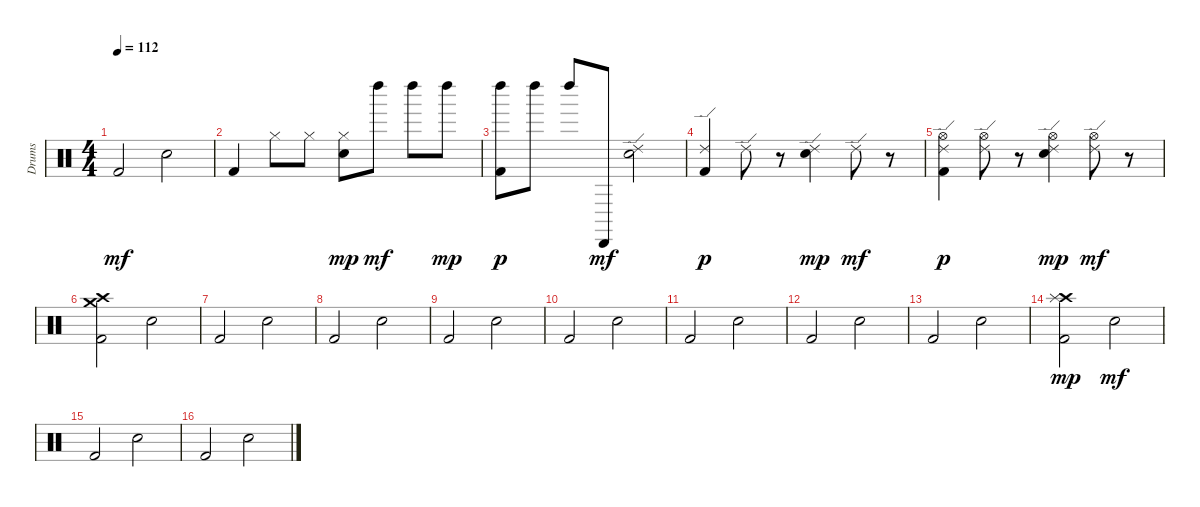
\track ("Drums" "Drums") {instrument percussion}
\staff {score}
\articulation defaults
\ts (4 4)
\tempo 112
\clef neutral
\ks c "Kick (hit) 2".2{dy mf} "Snare (hit) 2".2
|
"Kick (hit) 2".4 "Hi-Hat (closed)".8 "Hi-Hat (closed)".8 ("Snare (hit) 2" "Hi-Hat (closed)").8{dy mp} "Left Maraca (hit)".8{dy mf} "Left Maraca (hit)".8 "Left Maraca (hit)".8{dy mp} |
("Kick (hit) 2" "Left Maraca (hit)").8{dy p} "Left Maraca (hit)".8 "Left Maraca (hit)".8 "Cabasa (hit)".8{dy mf} ("Snare (hit) 2" "Ride (edge) 2").2 |
("Kick (hit) 2" "Ride (edge) 2").4{dy p} "Ride (edge) 2".8 r.8 ("Snare (hit) 2" "Ride (edge) 2").4{dy mp} "Ride (edge) 2".8{dy mf} r.8 |
("Kick (hit) 2" "Ride (edge) 2" "Hi-Hat (open)").4{dy p} ("Ride (edge) 2" "Hi-Hat (open)").8 r.8 ("Snare (hit) 2" "Ride (edge) 2" "Hi-Hat (open)").4{dy mp} ("Ride (edge) 2" "Hi-Hat (open)").8{dy mf} r.8 |
("Kick (hit) 2" "Crash medium (hit)" "Crash high (hit)").2 "Snare (hit) 2".2 |
"Kick (hit) 2".2 "Snare (hit) 2".2 |
"Kick (hit) 2".2 "Snare (hit) 2".2 |
"Kick (hit) 2".2 "Snare (hit) 2".2 |
"Kick (hit) 2".2 "Snare (hit) 2".2 |
"Kick (hit) 2".2 "Snare (hit) 2".2 |
"Kick (hit) 2".2 "Snare (hit) 2".2 |
"Kick (hit) 2".2 "Snare (hit) 2".2 |
("Kick (hit) 2" "Crash high (hit)" "Splash (hit)").2{dy mp} "Snare (hit) 2".2{dy mf} |
"Kick (hit) 2".2 "Snare (hit) 2".2 |
"Kick (hit) 2".2 "Snare (hit) 2".2
